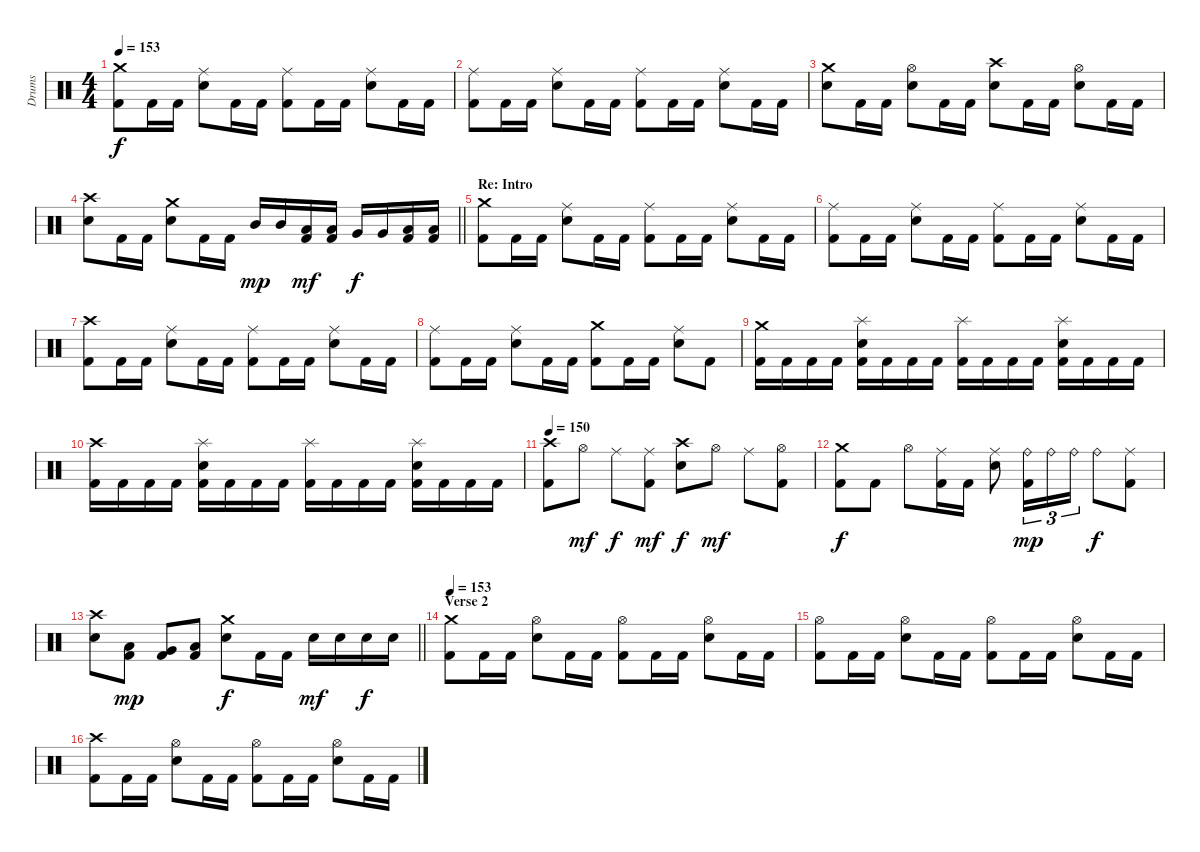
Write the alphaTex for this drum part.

\track ("Drums" "Drums") {instrument percussion}
\staff
\articulation defaults
\ts (4 4)
\tempo 153
\clef neutral
\ks c
("Kick (hit) 2" "Crash medium (hit)").8{dy f} "Kick (hit) 2".16 "Kick (hit) 2".16 ("Electric Snare (hit)" "Ride (middle)").8 "Kick (hit) 2".16 "Kick (hit) 2".16 ("Kick (hit) 2" "Ride (middle)").8 "Kick (hit) 2".16 "Kick (hit) 2".16 ("Electric Snare (hit)" "Ride (middle)").8 "Kick (hit) 2".16 "Kick (hit) 2".16 |
("Kick (hit) 2" "Ride (middle)").8 "Kick (hit) 2".16 "Kick (hit) 2".16 ("Electric Snare (hit)" "Ride (middle)").8 "Kick (hit) 2".16 "Kick (hit) 2".16 ("Kick (hit) 2" "Ride (middle)").8 "Kick (hit) 2".16 "Kick (hit) 2".16 ("Electric Snare (hit)" "Ride (middle)").8 "Kick (hit) 2".16 "Kick (hit) 2".16 |
("Electric Snare (hit)" "Crash medium (hit)").8 "Kick (hit) 2".16 "Kick (hit) 2".16 ("Electric Snare (hit)" "Hi-Hat (open)").8 "Kick (hit) 2".16 "Kick (hit) 2".16 ("Electric Snare (hit)" "Crash high (hit)").8 "Kick (hit) 2".16 "Kick (hit) 2".16 ("Electric Snare (hit)" "Hi-Hat (open)").8 "Kick (hit) 2".16 "Kick (hit) 2".16 |
\barLineRight lightlight
("Electric Snare (hit)" "Crash high (hit)").8 "Kick (hit) 2".16 "Kick (hit) 2".16 ("Electric Snare (hit)" "Crash medium (hit)").8 "Kick (hit) 2".16 "Kick (hit) 2".16 "Mid Tom (hit)".16{dy mp} "Mid Tom (hit)".16 ("Kick (hit) 2" "Low Tom (hit)").16{dy mf} ("Kick (hit) 2" "Low Tom (hit)").16 "Very Low Tom (hit)".16{dy f} "Very Low Tom (hit)".16 ("Kick (hit) 2" "Low Floor Tom (hit)").16 ("Kick (hit) 2" "Low Floor Tom (hit)").16 |
\section ("" "Re: Intro")
("Kick (hit) 2" "Crash medium (hit)").8 "Kick (hit) 2".16 "Kick (hit) 2".16 ("Electric Snare (hit)" "Ride (middle)").8 "Kick (hit) 2".16 "Kick (hit) 2".16 ("Kick (hit) 2" "Ride (middle)").8 "Kick (hit) 2".16 "Kick (hit) 2".16 ("Electric Snare (hit)" "Ride (middle)").8 "Kick (hit) 2".16 "Kick (hit) 2".16 |
("Kick (hit) 2" "Ride (middle)").8 "Kick (hit) 2".16 "Kick (hit) 2".16 ("Electric Snare (hit)" "Ride (middle)").8 "Kick (hit) 2".16 "Kick (hit) 2".16 ("Kick (hit) 2" "Ride (middle)").8 "Kick (hit) 2".16 "Kick (hit) 2".16 ("Electric Snare (hit)" "Ride (middle)").8 "Kick (hit) 2".16 "Kick (hit) 2".16 |
("Kick (hit) 2" "Crash high (hit)").8 "Kick (hit) 2".16 "Kick (hit) 2".16 ("Electric Snare (hit)" "Ride (middle)").8 "Kick (hit) 2".16 "Kick (hit) 2".16 ("Kick (hit) 2" "Ride (middle)").8 "Kick (hit) 2".16 "Kick (hit) 2".16 ("Electric Snare (hit)" "Ride (middle)").8 "Kick (hit) 2".16 "Kick (hit) 2".16 |
("Kick (hit) 2" "Ride (middle)").8 "Kick (hit) 2".16 "Kick (hit) 2".16 ("Electric Snare (hit)" "Ride (middle)").8 "Kick (hit) 2".16 "Kick (hit) 2".16 ("Kick (hit) 2" "Crash medium (hit)").8 "Kick (hit) 2".16 "Kick (hit) 2".16 ("Electric Snare (hit)" "Ride (middle)").8 "Kick (hit) 2".8 |
("Kick (hit) 2" "Crash medium (hit)").16 "Kick (hit) 2".16 "Kick (hit) 2".16 "Kick (hit) 2".16 ("Kick (hit) 2" "Electric Snare (hit)" "Splash (hit)").16 "Kick (hit) 2".16 "Kick (hit) 2".16 "Kick (hit) 2".16 ("Kick (hit) 2" "Splash (hit)").16 "Kick (hit) 2".16 "Kick (hit) 2".16 "Kick (hit) 2".16 ("Kick (hit) 2" "Electric Snare (hit)" "Splash (hit)").16 "Kick (hit) 2".16 "Kick (hit) 2".16 "Kick (hit) 2".16 |
("Kick (hit) 2" "Crash high (hit)").16 "Kick (hit) 2".16 "Kick (hit) 2".16 "Kick (hit) 2".16 ("Kick (hit) 2" "Electric Snare (hit)" "Splash (hit)").16 "Kick (hit) 2".16 "Kick (hit) 2".16 "Kick (hit) 2".16 ("Kick (hit) 2" "Splash (hit)").16 "Kick (hit) 2".16 "Kick (hit) 2".16 "Kick (hit) 2".16 ("Kick (hit) 2" "Electric Snare (hit)" "Splash (hit)").16 "Kick (hit) 2".16 "Kick (hit) 2".16 "Kick (hit) 2".16 |
\tempo 150
("Kick (hit) 2" "Crash high (hit)").8 "Hi-Hat (open)".8{dy mf} "Ride (middle)".8{dy f} ("Kick (hit) 2" "Ride (middle)").8{dy mf} ("Electric Snare (hit)" "Crash high (hit)").8{dy f} "Hi-Hat (open)".8{dy mf} "Ride (middle)".8 ("Kick (hit) 2" "Hi-Hat (open)").8 |
("Kick (hit) 2" "Crash medium (hit)").8{dy f} "Kick (hit) 2".8 "Hi-Hat (open)".8 ("Kick (hit) 2" "Ride (middle)").16 "Kick (hit) 2".16 ("Electric Snare (hit)" "Ride (middle)").8 ("Kick (hit) 2" "Ride (bell)").16{tu (3 2) dy mp} "Ride (bell)".16{tu (3 2)} "Ride (bell)".16{tu (3 2)} "Ride (bell)".8{dy f} ("Kick (hit) 2" "Ride (middle)").8 |
\barLineRight lightlight
("Electric Snare (hit)" "Crash high (hit)").8 ("Kick (hit) 2" "Low Tom (hit)").8{dy mp} ("Kick (hit) 2" "Very Low Tom (hit)").8 ("Kick (hit) 2" "Low Floor Tom (hit)").8 ("Electric Snare (hit)" "Crash medium (hit)").8{dy f} "Kick (hit) 2".16 "Kick (hit) 2".16 "Electric Snare (hit)".16{dy mf} "Electric Snare (hit)".16 "Electric Snare (hit)".16{dy f} "Electric Snare (hit)".16 |
\section ("" "Verse 2")
\tempo 153
("Kick (hit) 2" "Crash medium (hit)").8 "Kick (hit) 2".16 "Kick (hit) 2".16 ("Electric Snare (hit)" "Hi-Hat (open)").8 "Kick (hit) 2".16 "Kick (hit) 2".16 ("Kick (hit) 2" "Hi-Hat (open)").8 "Kick (hit) 2".16 "Kick (hit) 2".16 ("Electric Snare (hit)" "Hi-Hat (open)").8 "Kick (hit) 2".16 "Kick (hit) 2".16 |
("Kick (hit) 2" "Hi-Hat (open)").8 "Kick (hit) 2".16 "Kick (hit) 2".16 ("Electric Snare (hit)" "Hi-Hat (open)").8 "Kick (hit) 2".16 "Kick (hit) 2".16 ("Kick (hit) 2" "Hi-Hat (open)").8 "Kick (hit) 2".16 "Kick (hit) 2".16 ("Electric Snare (hit)" "Hi-Hat (open)").8 "Kick (hit) 2".16 "Kick (hit) 2".16 |
("Kick (hit) 2" "Crash high (hit)").8 "Kick (hit) 2".16 "Kick (hit) 2".16 ("Electric Snare (hit)" "Hi-Hat (open)").8 "Kick (hit) 2".16 "Kick (hit) 2".16 ("Kick (hit) 2" "Hi-Hat (open)").8 "Kick (hit) 2".16 "Kick (hit) 2".16 ("Electric Snare (hit)" "Hi-Hat (open)").8 "Kick (hit) 2".16 "Kick (hit) 2".16
